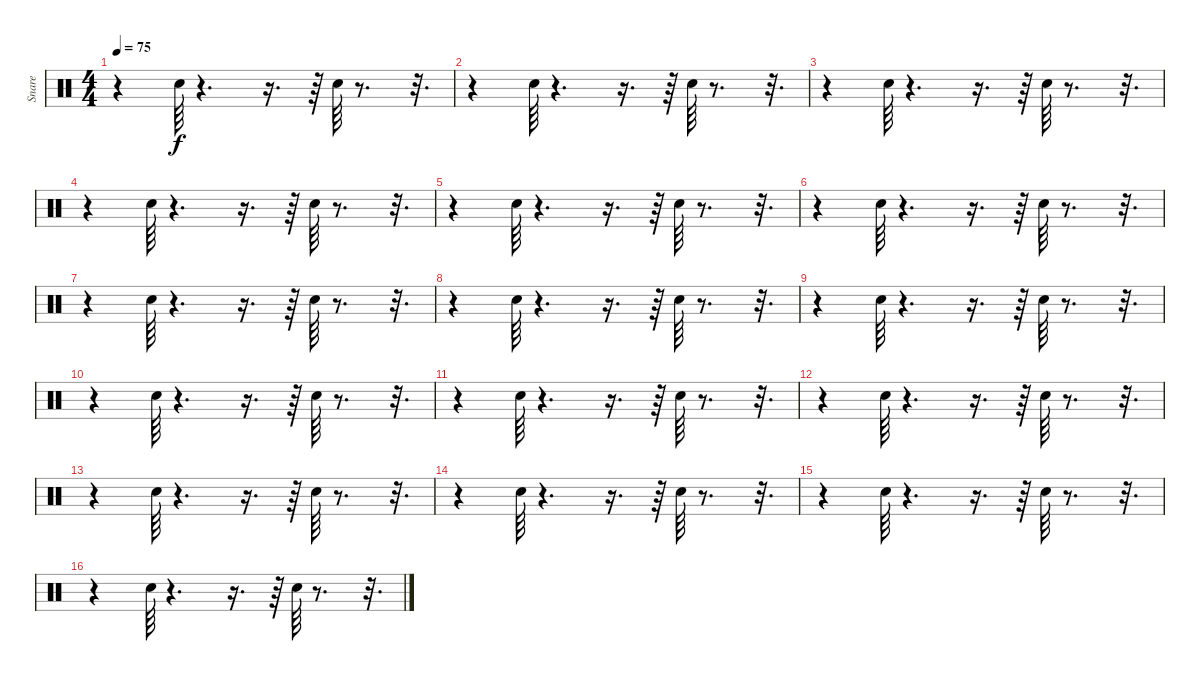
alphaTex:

\track ("Snare" "Snare") {instrument percussion}
\staff {score}
\articulation defaults
\ts (4 4)
\tempo 75
\clef neutral
\ks c
r.4{dy f} "Electric Snare (hit)".64 r.4{d} r.16{d} r.64 "Electric Snare (hit)".64 r.8{d} r.32{d} |
r.4 "Electric Snare (hit)".64 r.4{d} r.16{d} r.64 "Electric Snare (hit)".64 r.8{d} r.32{d} |
r.4 "Electric Snare (hit)".64 r.4{d} r.16{d} r.64 "Electric Snare (hit)".64 r.8{d} r.32{d} |
r.4 "Electric Snare (hit)".64 r.4{d} r.16{d} r.64 "Electric Snare (hit)".64 r.8{d} r.32{d} |
r.4 "Electric Snare (hit)".64 r.4{d} r.16{d} r.64 "Electric Snare (hit)".64 r.8{d} r.32{d} |
r.4 "Electric Snare (hit)".64 r.4{d} r.16{d} r.64 "Electric Snare (hit)".64 r.8{d} r.32{d} |
r.4 "Electric Snare (hit)".64 r.4{d} r.16{d} r.64 "Electric Snare (hit)".64 r.8{d} r.32{d} |
r.4 "Electric Snare (hit)".64 r.4{d} r.16{d} r.64 "Electric Snare (hit)".64 r.8{d} r.32{d} |
r.4 "Electric Snare (hit)".64 r.4{d} r.16{d} r.64 "Electric Snare (hit)".64 r.8{d} r.32{d} |
r.4 "Electric Snare (hit)".64 r.4{d} r.16{d} r.64 "Electric Snare (hit)".64 r.8{d} r.32{d} |
r.4 "Electric Snare (hit)".64 r.4{d} r.16{d} r.64 "Electric Snare (hit)".64 r.8{d} r.32{d} |
r.4 "Electric Snare (hit)".64 r.4{d} r.16{d} r.64 "Electric Snare (hit)".64 r.8{d} r.32{d} |
r.4 "Electric Snare (hit)".64 r.4{d} r.16{d} r.64 "Electric Snare (hit)".64 r.8{d} r.32{d} |
r.4 "Electric Snare (hit)".64 r.4{d} r.16{d} r.64 "Electric Snare (hit)".64 r.8{d} r.32{d} |
r.4 "Electric Snare (hit)".64 r.4{d} r.16{d} r.64 "Electric Snare (hit)".64 r.8{d} r.32{d} |
r.4 "Electric Snare (hit)".64 r.4{d} r.16{d} r.64 "Electric Snare (hit)".64 r.8{d} r.32{d}
